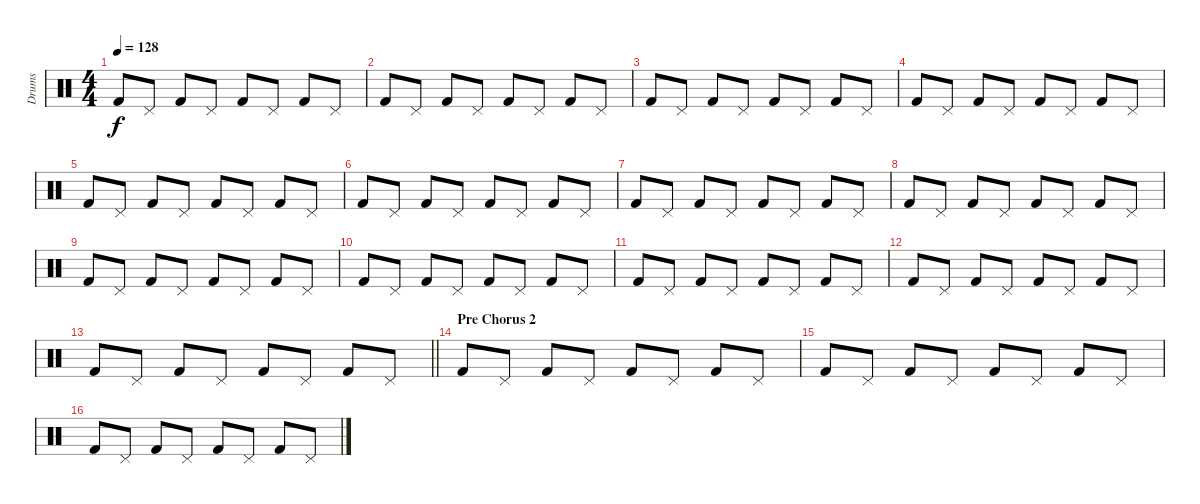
\track ("Drums" "Drums") {instrument percussion}
\staff {score}
\articulation defaults
\ts (4 4)
\tempo 128
\clef neutral
\ks c "Kick (hit) 2".8{dy f} "Pedal Hi-Hat (hit)".8 "Kick (hit) 2".8 "Pedal Hi-Hat (hit)".8 "Kick (hit) 2".8 "Pedal Hi-Hat (hit)".8 "Kick (hit) 2".8 "Pedal Hi-Hat (hit)".8
|
"Kick (hit) 2".8 "Pedal Hi-Hat (hit)".8 "Kick (hit) 2".8 "Pedal Hi-Hat (hit)".8 "Kick (hit) 2".8 "Pedal Hi-Hat (hit)".8 "Kick (hit) 2".8 "Pedal Hi-Hat (hit)".8 |
"Kick (hit) 2".8 "Pedal Hi-Hat (hit)".8 "Kick (hit) 2".8 "Pedal Hi-Hat (hit)".8 "Kick (hit) 2".8 "Pedal Hi-Hat (hit)".8 "Kick (hit) 2".8 "Pedal Hi-Hat (hit)".8 |
"Kick (hit) 2".8 "Pedal Hi-Hat (hit)".8 "Kick (hit) 2".8 "Pedal Hi-Hat (hit)".8 "Kick (hit) 2".8 "Pedal Hi-Hat (hit)".8 "Kick (hit) 2".8 "Pedal Hi-Hat (hit)".8 |
"Kick (hit) 2".8 "Pedal Hi-Hat (hit)".8 "Kick (hit) 2".8 "Pedal Hi-Hat (hit)".8 "Kick (hit) 2".8 "Pedal Hi-Hat (hit)".8 "Kick (hit) 2".8 "Pedal Hi-Hat (hit)".8 |
"Kick (hit) 2".8 "Pedal Hi-Hat (hit)".8 "Kick (hit) 2".8 "Pedal Hi-Hat (hit)".8 "Kick (hit) 2".8 "Pedal Hi-Hat (hit)".8 "Kick (hit) 2".8 "Pedal Hi-Hat (hit)".8 |
"Kick (hit) 2".8 "Pedal Hi-Hat (hit)".8 "Kick (hit) 2".8 "Pedal Hi-Hat (hit)".8 "Kick (hit) 2".8 "Pedal Hi-Hat (hit)".8 "Kick (hit) 2".8 "Pedal Hi-Hat (hit)".8 |
"Kick (hit) 2".8 "Pedal Hi-Hat (hit)".8 "Kick (hit) 2".8 "Pedal Hi-Hat (hit)".8 "Kick (hit) 2".8 "Pedal Hi-Hat (hit)".8 "Kick (hit) 2".8 "Pedal Hi-Hat (hit)".8 |
"Kick (hit) 2".8 "Pedal Hi-Hat (hit)".8 "Kick (hit) 2".8 "Pedal Hi-Hat (hit)".8 "Kick (hit) 2".8 "Pedal Hi-Hat (hit)".8 "Kick (hit) 2".8 "Pedal Hi-Hat (hit)".8 |
"Kick (hit) 2".8 "Pedal Hi-Hat (hit)".8 "Kick (hit) 2".8 "Pedal Hi-Hat (hit)".8 "Kick (hit) 2".8 "Pedal Hi-Hat (hit)".8 "Kick (hit) 2".8 "Pedal Hi-Hat (hit)".8 |
"Kick (hit) 2".8 "Pedal Hi-Hat (hit)".8 "Kick (hit) 2".8 "Pedal Hi-Hat (hit)".8 "Kick (hit) 2".8 "Pedal Hi-Hat (hit)".8 "Kick (hit) 2".8 "Pedal Hi-Hat (hit)".8 |
"Kick (hit) 2".8 "Pedal Hi-Hat (hit)".8 "Kick (hit) 2".8 "Pedal Hi-Hat (hit)".8 "Kick (hit) 2".8 "Pedal Hi-Hat (hit)".8 "Kick (hit) 2".8 "Pedal Hi-Hat (hit)".8 |
\barLineRight lightlight "Kick (hit) 2".8 "Pedal Hi-Hat (hit)".8 "Kick (hit) 2".8 "Pedal Hi-Hat (hit)".8 "Kick (hit) 2".8 "Pedal Hi-Hat (hit)".8 "Kick (hit) 2".8 "Pedal Hi-Hat (hit)".8
|
\section ("" "Pre Chorus 2")
"Kick (hit) 2".8 "Pedal Hi-Hat (hit)".8 "Kick (hit) 2".8 "Pedal Hi-Hat (hit)".8 "Kick (hit) 2".8 "Pedal Hi-Hat (hit)".8 "Kick (hit) 2".8 "Pedal Hi-Hat (hit)".8 |
"Kick (hit) 2".8 "Pedal Hi-Hat (hit)".8 "Kick (hit) 2".8 "Pedal Hi-Hat (hit)".8 "Kick (hit) 2".8 "Pedal Hi-Hat (hit)".8 "Kick (hit) 2".8 "Pedal Hi-Hat (hit)".8 |
"Kick (hit) 2".8 "Pedal Hi-Hat (hit)".8 "Kick (hit) 2".8 "Pedal Hi-Hat (hit)".8 "Kick (hit) 2".8 "Pedal Hi-Hat (hit)".8 "Kick (hit) 2".8 "Pedal Hi-Hat (hit)".8
